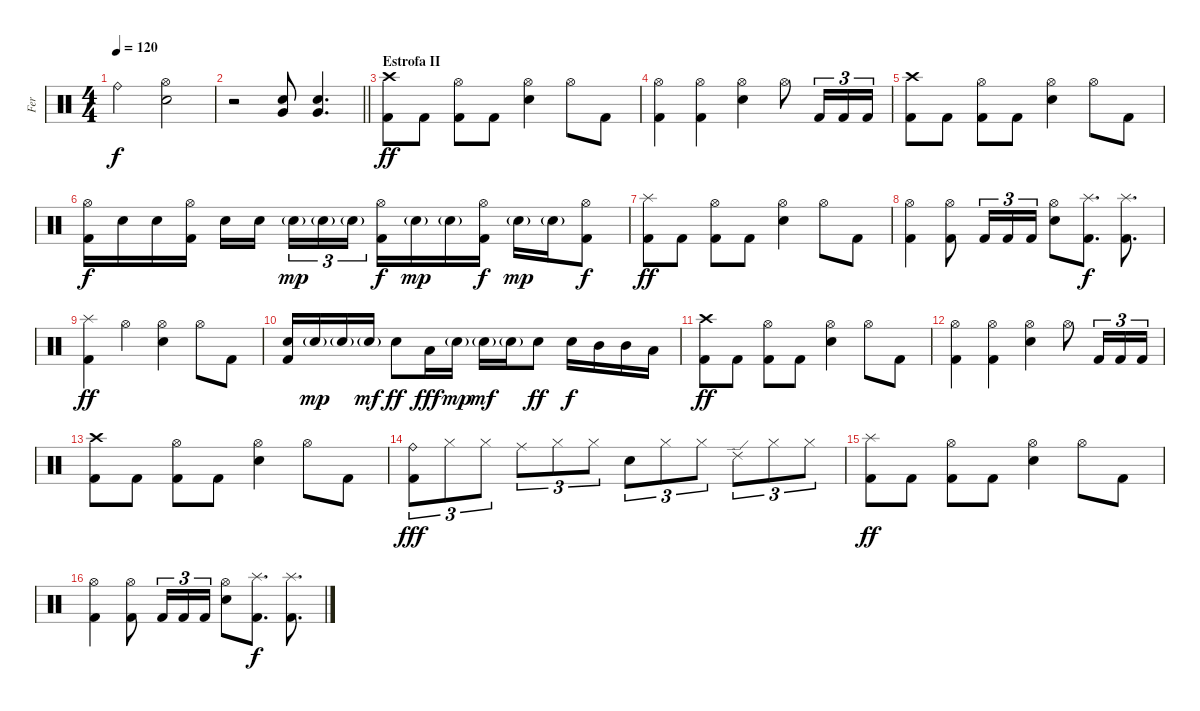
\track ("Fer" "Fer") {instrument percussion}
\staff {score}
\articulation defaults
\ts (4 4)
\tempo 120
\clef neutral
\ks c "Ride (bell)".2{dy f}
("Hi-Hat (open)" "Snare (hit) 2").2 |
\barLineRight lightlight
r.2 ("Snare (hit) 2" "Very Low Tom (hit)").8 ("Snare (hit) 2" "Very Low Tom (hit)").4{d} |
\section ("" "Estrofa II")
("Crash high (hit)" "Kick (hit) 2").8{dy ff} "Kick (hit) 2".8 ("Hi-Hat (open)" "Kick (hit) 2").8 "Kick (hit) 2".8 ("Hi-Hat (open)" "Snare (hit) 2").4 "Hi-Hat (open)".8 "Kick (hit) 2".8 |
("Hi-Hat (open)" "Kick (hit) 2").4 ("Hi-Hat (open)" "Kick (hit) 2").4 ("Hi-Hat (open)" "Snare (hit) 2").4 "Hi-Hat (open)".8 "Kick (hit) 2".16{tu (3 2)} "Kick (hit) 2".16{tu (3 2)} "Kick (hit) 2".16{tu (3 2)} |
("Crash high (hit)" "Kick (hit) 2").8 "Kick (hit) 2".8 ("Hi-Hat (open)" "Kick (hit) 2").8 "Kick (hit) 2".8 ("Hi-Hat (open)" "Snare (hit) 2").4 "Hi-Hat (open)".8 "Kick (hit) 2".8 |
("Hi-Hat (open)" "Kick (hit) 2").16{dy f} "Snare (hit) 2".16 "Snare (hit) 2".16 ("Hi-Hat (open)" "Kick (hit) 2").16 "Snare (hit) 2".16 "Snare (hit) 2".16{beam splitsecondary} "Snare (hit) 2"{g}.16{tu (3 2) dy mp} "Snare (hit) 2"{g}.16{tu (3 2)} "Snare (hit) 2"{g}.16{tu (3 2)} ("Hi-Hat (open)" "Kick (hit) 2").16{dy f} "Snare (hit) 2"{g}.16{dy mp} "Snare (hit) 2"{g}.16 ("Hi-Hat (open)" "Kick (hit) 2").16{dy f} "Snare (hit) 2"{g}.16{dy mp} "Snare (hit) 2"{g}.16 ("Hi-Hat (open)" "Kick (hit) 2").8{dy f} |
("Splash (hit)" "Kick (hit) 2").8{dy ff} "Kick (hit) 2".8 ("Hi-Hat (open)" "Kick (hit) 2").8 "Kick (hit) 2".8 ("Hi-Hat (open)" "Snare (hit) 2").4 "Hi-Hat (open)".8 "Kick (hit) 2".8 |
("Hi-Hat (open)" "Kick (hit) 2").4 ("Hi-Hat (open)" "Kick (hit) 2").8 "Kick (hit) 2".16{tu (3 2)} "Kick (hit) 2".16{tu (3 2)} "Kick (hit) 2".16{tu (3 2)} ("Hi-Hat (open)" "Snare (hit) 2").8 ("Splash (hit)" "Kick (hit) 2").8{d dy f} ("Splash (hit)" "Kick (hit) 2").8{d} |
("Splash (hit)" "Kick (hit) 2").4{dy ff} "Hi-Hat (open)".4 ("Hi-Hat (open)" "Snare (hit) 2").4 "Hi-Hat (open)".8 "Kick (hit) 2".8 |
("Snare (hit) 2" "Kick (hit) 2").16 "Snare (hit) 2"{g}.16{dy mp} "Snare (hit) 2"{g}.16 "Snare (hit) 2"{g}.16{dy mf} "Snare (hit) 2".8{dy ff} "Low Tom (hit)".16{dy fff} "Snare (hit) 2"{g}.16{dy mp} "Snare (hit) 2"{g}.16{dy mf} "Snare (hit) 2"{g}.16 "Snare (hit) 2".8{dy ff} "Snare (hit) 2".16{dy f} "Mid Tom (hit)".16 "Mid Tom (hit)".16 "Low Tom (hit)".16 |
("Crash high (hit)" "Kick (hit) 2").8{dy ff} "Kick (hit) 2".8 ("Hi-Hat (open)" "Kick (hit) 2").8 "Kick (hit) 2".8 ("Hi-Hat (open)" "Snare (hit) 2").4 "Hi-Hat (open)".8 "Kick (hit) 2".8 |
("Hi-Hat (open)" "Kick (hit) 2").4 ("Hi-Hat (open)" "Kick (hit) 2").4 ("Hi-Hat (open)" "Snare (hit) 2").4 "Hi-Hat (open)".8 "Kick (hit) 2".16{tu (3 2)} "Kick (hit) 2".16{tu (3 2)} "Kick (hit) 2".16{tu (3 2)} |
("Crash high (hit)" "Kick (hit) 2").8 "Kick (hit) 2".8 ("Hi-Hat (open)" "Kick (hit) 2").8 "Kick (hit) 2".8 ("Hi-Hat (open)" "Snare (hit) 2").4 "Hi-Hat (open)".8 "Kick (hit) 2".8 |
("Ride (bell)" "Kick (hit) 2").8{tu (3 2) dy fff} "Hi-Hat (closed)".8{tu (3 2)} "Hi-Hat (closed)".8{tu (3 2)} "Ride (middle)".8{tu (3 2)} "Hi-Hat (closed)".8{tu (3 2)} "Hi-Hat (closed)".8{tu (3 2)} "Snare (hit) 2".8{tu (3 2)} "Hi-Hat (closed)".8{tu (3 2)} "Hi-Hat (closed)".8{tu (3 2)} "Ride (edge) 2".8{tu (3 2)} "Hi-Hat (closed)".8{tu (3 2)} "Hi-Hat (closed)".8{tu (3 2)} |
("Splash (hit)" "Kick (hit) 2").8{dy ff} "Kick (hit) 2".8 ("Hi-Hat (open)" "Kick (hit) 2").8 "Kick (hit) 2".8 ("Hi-Hat (open)" "Snare (hit) 2").4 "Hi-Hat (open)".8 "Kick (hit) 2".8 |
("Hi-Hat (open)" "Kick (hit) 2").4 ("Hi-Hat (open)" "Kick (hit) 2").8 "Kick (hit) 2".16{tu (3 2)} "Kick (hit) 2".16{tu (3 2)} "Kick (hit) 2".16{tu (3 2)} ("Hi-Hat (open)" "Snare (hit) 2").8 ("Splash (hit)" "Kick (hit) 2").8{d dy f} ("Splash (hit)" "Kick (hit) 2").8{d}
